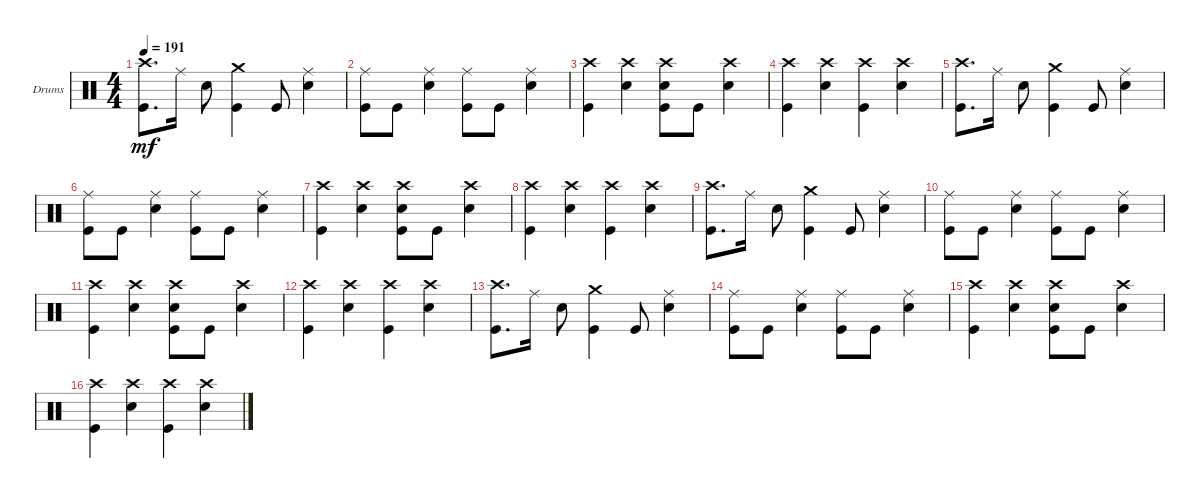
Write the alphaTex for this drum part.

\defaultSystemsLayout 4
\bracketExtendMode groupsimilarinstruments
\firstSystemTrackNameOrientation horizontal
\otherSystemsTrackNameOrientation horizontal
\track ("Drumkit" "Drums") {instrument percussion}
\staff {score}
\articulation defaults
\ts (4 4)
\tempo 191
\clef neutral
\scale
0.333333
\ks c
("Crash high (hit)" "Kick (hit)").8{d dy mf} "Ride (middle)".16 "Snare (hit) 2".8 ("Kick (hit)" "Crash medium (hit)").4 "Kick (hit)".8 ("Snare (hit) 2" "Ride (middle)").4 |
\scale
0.333333 ("Kick (hit)" "Ride (middle)").8 "Kick (hit)".8 ("Snare (hit) 2" "Ride (middle)").4 ("Kick (hit)" "Ride (middle)").8 "Kick (hit)".8 ("Snare (hit) 2" "Ride (middle)").4 |
\scale
0.333333 ("Kick (hit)" "Crash high (hit)").4 ("Snare (hit) 2" "Crash high (hit)").4 ("Kick (hit)" "Snare (hit) 2" "Crash high (hit)").8 "Kick (hit)".8 ("Snare (hit) 2" "Crash high (hit)").4 |
\scale
0.333333 ("Kick (hit)" "Crash high (hit)").4 ("Snare (hit) 2" "Crash high (hit)").4 ("Kick (hit)" "Crash high (hit)").4 ("Snare (hit) 2" "Crash high (hit)").4 |
\scale
0.333333 ("Crash high (hit)" "Kick (hit)").8{d} "Ride (middle)".16 "Snare (hit) 2".8 ("Kick (hit)" "Crash medium (hit)").4 "Kick (hit)".8 ("Snare (hit) 2" "Ride (middle)").4 |
\scale
0.333333 ("Kick (hit)" "Ride (middle)").8 "Kick (hit)".8 ("Snare (hit) 2" "Ride (middle)").4 ("Kick (hit)" "Ride (middle)").8 "Kick (hit)".8 ("Snare (hit) 2" "Ride (middle)").4 |
\scale
0.333333 ("Kick (hit)" "Crash high (hit)").4 ("Snare (hit) 2" "Crash high (hit)").4 ("Kick (hit)" "Snare (hit) 2" "Crash high (hit)").8 "Kick (hit)".8 ("Snare (hit) 2" "Crash high (hit)").4 |
\scale
0.333333 ("Kick (hit)" "Crash high (hit)").4 ("Snare (hit) 2" "Crash high (hit)").4 ("Kick (hit)" "Crash high (hit)").4 ("Snare (hit) 2" "Crash high (hit)").4 |
\scale
0.333333 ("Crash high (hit)" "Kick (hit)").8{d} "Ride (middle)".16 "Snare (hit) 2".8 ("Kick (hit)" "Crash medium (hit)").4 "Kick (hit)".8 ("Snare (hit) 2" "Ride (middle)").4 |
\scale
0.333333 ("Kick (hit)" "Ride (middle)").8 "Kick (hit)".8 ("Snare (hit) 2" "Ride (middle)").4 ("Kick (hit)" "Ride (middle)").8 "Kick (hit)".8 ("Snare (hit) 2" "Ride (middle)").4 |
\scale
0.333333 ("Kick (hit)" "Crash high (hit)").4 ("Snare (hit) 2" "Crash high (hit)").4 ("Kick (hit)" "Snare (hit) 2" "Crash high (hit)").8 "Kick (hit)".8 ("Snare (hit) 2" "Crash high (hit)").4 |
\scale
0.333333 ("Kick (hit)" "Crash high (hit)").4 ("Snare (hit) 2" "Crash high (hit)").4 ("Kick (hit)" "Crash high (hit)").4 ("Snare (hit) 2" "Crash high (hit)").4 |
\scale
0.333333 ("Crash high (hit)" "Kick (hit)").8{d} "Ride (middle)".16 "Snare (hit) 2".8 ("Kick (hit)" "Crash medium (hit)").4 "Kick (hit)".8 ("Snare (hit) 2" "Ride (middle)").4 |
\scale
0.333333 ("Kick (hit)" "Ride (middle)").8 "Kick (hit)".8 ("Snare (hit) 2" "Ride (middle)").4 ("Kick (hit)" "Ride (middle)").8 "Kick (hit)".8 ("Snare (hit) 2" "Ride (middle)").4 |
\scale
0.333333 ("Kick (hit)" "Crash high (hit)").4 ("Snare (hit) 2" "Crash high (hit)").4 ("Kick (hit)" "Snare (hit) 2" "Crash high (hit)").8 "Kick (hit)".8 ("Snare (hit) 2" "Crash high (hit)").4 |
\scale
0.333333 ("Kick (hit)" "Crash high (hit)").4 ("Snare (hit) 2" "Crash high (hit)").4 ("Kick (hit)" "Crash high (hit)").4 ("Snare (hit) 2" "Crash high (hit)").4
